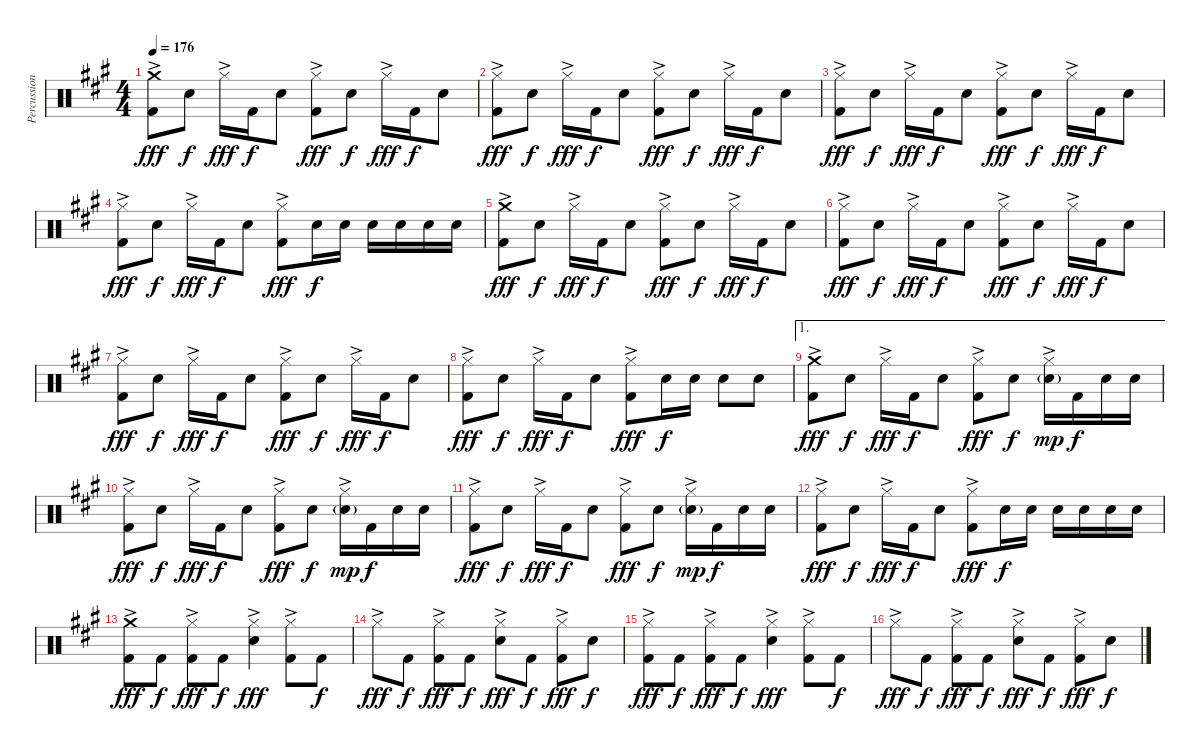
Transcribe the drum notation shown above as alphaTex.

\track ("Percussion" "Percussion") {instrument percussion}
\staff {score}
\articulation defaults
\ts (4 4)
\tempo 176
\clef neutral
\ks a
("Crash medium (hit)"{ac} "Kick (hit) 2").8{dy fff} "Snare (hit) 2".8{dy f} "Hi-Hat (closed)"{ac}.16{dy fff} "Kick (hit) 2".16{dy f} "Snare (hit) 2".8 ("Hi-Hat (closed)"{ac} "Kick (hit) 2").8{dy fff} "Snare (hit) 2".8{dy f} "Hi-Hat (closed)"{ac}.16{dy fff} "Kick (hit) 2".16{dy f} "Snare (hit) 2".8 |
("Hi-Hat (closed)"{ac} "Kick (hit) 2").8{dy fff} "Snare (hit) 2".8{dy f} "Hi-Hat (closed)"{ac}.16{dy fff} "Kick (hit) 2".16{dy f} "Snare (hit) 2".8 ("Hi-Hat (closed)"{ac} "Kick (hit) 2").8{dy fff} "Snare (hit) 2".8{dy f} "Hi-Hat (closed)"{ac}.16{dy fff} "Kick (hit) 2".16{dy f} "Snare (hit) 2".8 |
("Hi-Hat (closed)"{ac} "Kick (hit) 2").8{dy fff} "Snare (hit) 2".8{dy f} "Hi-Hat (closed)"{ac}.16{dy fff} "Kick (hit) 2".16{dy f} "Snare (hit) 2".8 ("Hi-Hat (closed)"{ac} "Kick (hit) 2").8{dy fff} "Snare (hit) 2".8{dy f} "Hi-Hat (closed)"{ac}.16{dy fff} "Kick (hit) 2".16{dy f} "Snare (hit) 2".8 |
("Hi-Hat (closed)"{ac} "Kick (hit) 2").8{dy fff} "Snare (hit) 2".8{dy f} "Hi-Hat (closed)"{ac}.16{dy fff} "Kick (hit) 2".16{dy f} "Snare (hit) 2".8 ("Hi-Hat (closed)"{ac} "Kick (hit) 2").8{dy fff} "Snare (hit) 2".16{dy f} "Snare (hit) 2".16 "Snare (hit) 2".16 "Snare (hit) 2".16 "Snare (hit) 2".16 "Snare (hit) 2".16 |
("Crash medium (hit)"{ac} "Kick (hit) 2").8{dy fff} "Snare (hit) 2".8{dy f} "Hi-Hat (closed)"{ac}.16{dy fff} "Kick (hit) 2".16{dy f} "Snare (hit) 2".8 ("Hi-Hat (closed)"{ac} "Kick (hit) 2").8{dy fff} "Snare (hit) 2".8{dy f} "Hi-Hat (closed)"{ac}.16{dy fff} "Kick (hit) 2".16{dy f} "Snare (hit) 2".8 |
("Hi-Hat (closed)"{ac} "Kick (hit) 2").8{dy fff} "Snare (hit) 2".8{dy f} "Hi-Hat (closed)"{ac}.16{dy fff} "Kick (hit) 2".16{dy f} "Snare (hit) 2".8 ("Hi-Hat (closed)"{ac} "Kick (hit) 2").8{dy fff} "Snare (hit) 2".8{dy f} "Hi-Hat (closed)"{ac}.16{dy fff} "Kick (hit) 2".16{dy f} "Snare (hit) 2".8 |
("Hi-Hat (closed)"{ac} "Kick (hit) 2").8{dy fff} "Snare (hit) 2".8{dy f} "Hi-Hat (closed)"{ac}.16{dy fff} "Kick (hit) 2".16{dy f} "Snare (hit) 2".8 ("Hi-Hat (closed)"{ac} "Kick (hit) 2").8{dy fff} "Snare (hit) 2".8{dy f} "Hi-Hat (closed)"{ac}.16{dy fff} "Kick (hit) 2".16{dy f} "Snare (hit) 2".8 |
("Hi-Hat (closed)"{ac} "Kick (hit) 2").8{dy fff} "Snare (hit) 2".8{dy f} "Hi-Hat (closed)"{ac}.16{dy fff} "Kick (hit) 2".16{dy f} "Snare (hit) 2".8 ("Hi-Hat (closed)"{ac} "Kick (hit) 2").8{dy fff} "Snare (hit) 2".16{dy f} "Snare (hit) 2".16 "Snare (hit) 2".8 "Snare (hit) 2".8 |
\ae 1
("Crash medium (hit)"{ac} "Kick (hit) 2").8{dy fff} "Snare (hit) 2".8{dy f} "Hi-Hat (closed)"{ac}.16{dy fff} "Kick (hit) 2".16{dy f} "Snare (hit) 2".8 ("Hi-Hat (closed)"{ac} "Kick (hit) 2").8{dy fff} "Snare (hit) 2".8{dy f} ("Hi-Hat (closed)"{ac} "Snare (hit) 2"{g}).16{dy mp} "Kick (hit) 2".16{dy f} "Snare (hit) 2".16 "Snare (hit) 2".16 |
("Hi-Hat (closed)"{ac} "Kick (hit) 2").8{dy fff} "Snare (hit) 2".8{dy f} "Hi-Hat (closed)"{ac}.16{dy fff} "Kick (hit) 2".16{dy f} "Snare (hit) 2".8 ("Hi-Hat (closed)"{ac} "Kick (hit) 2").8{dy fff} "Snare (hit) 2".8{dy f} ("Hi-Hat (closed)"{ac} "Snare (hit) 2"{g}).16{dy mp} "Kick (hit) 2".16{dy f} "Snare (hit) 2".16 "Snare (hit) 2".16 |
("Hi-Hat (closed)"{ac} "Kick (hit) 2").8{dy fff} "Snare (hit) 2".8{dy f} "Hi-Hat (closed)"{ac}.16{dy fff} "Kick (hit) 2".16{dy f} "Snare (hit) 2".8 ("Hi-Hat (closed)"{ac} "Kick (hit) 2").8{dy fff} "Snare (hit) 2".8{dy f} ("Hi-Hat (closed)"{ac} "Snare (hit) 2"{g}).16{dy mp} "Kick (hit) 2".16{dy f} "Snare (hit) 2".16 "Snare (hit) 2".16 |
("Hi-Hat (closed)"{ac} "Kick (hit) 2").8{dy fff} "Snare (hit) 2".8{dy f} "Hi-Hat (closed)"{ac}.16{dy fff} "Kick (hit) 2".16{dy f} "Snare (hit) 2".8 ("Hi-Hat (closed)"{ac} "Kick (hit) 2").8{dy fff} "Snare (hit) 2".16{dy f} "Snare (hit) 2".16 "Snare (hit) 2".16 "Snare (hit) 2".16 "Snare (hit) 2".16 "Snare (hit) 2".16 |
("Crash medium (hit)"{ac} "Kick (hit) 2").8{dy fff} "Kick (hit) 2".8{dy f} ("Hi-Hat (closed)"{ac} "Kick (hit) 2").8{dy fff} "Kick (hit) 2".8{dy f} ("Hi-Hat (closed)"{ac} "Snare (hit) 2").4{dy fff} ("Hi-Hat (closed)"{ac} "Kick (hit) 2").8 "Kick (hit) 2".8{dy f} |
"Hi-Hat (closed)"{ac}.8{dy fff} "Kick (hit) 2".8{dy f} ("Hi-Hat (closed)"{ac} "Kick (hit) 2").8{dy fff} "Kick (hit) 2".8{dy f} ("Hi-Hat (closed)"{ac} "Snare (hit) 2").8{dy fff} "Kick (hit) 2".8{dy f} ("Hi-Hat (closed)"{ac} "Kick (hit) 2").8{dy fff} "Snare (hit) 2".8{dy f} |
("Hi-Hat (closed)"{ac} "Kick (hit) 2").8{dy fff} "Kick (hit) 2".8{dy f} ("Hi-Hat (closed)"{ac} "Kick (hit) 2").8{dy fff} "Kick (hit) 2".8{dy f} ("Hi-Hat (closed)"{ac} "Snare (hit) 2").4{dy fff} ("Hi-Hat (closed)"{ac} "Kick (hit) 2").8 "Kick (hit) 2".8{dy f} |
"Hi-Hat (closed)"{ac}.8{dy fff} "Kick (hit) 2".8{dy f} ("Hi-Hat (closed)"{ac} "Kick (hit) 2").8{dy fff} "Kick (hit) 2".8{dy f} ("Hi-Hat (closed)"{ac} "Snare (hit) 2").8{dy fff} "Kick (hit) 2".8{dy f} ("Hi-Hat (closed)"{ac} "Kick (hit) 2").8{dy fff} "Snare (hit) 2".8{dy f}
